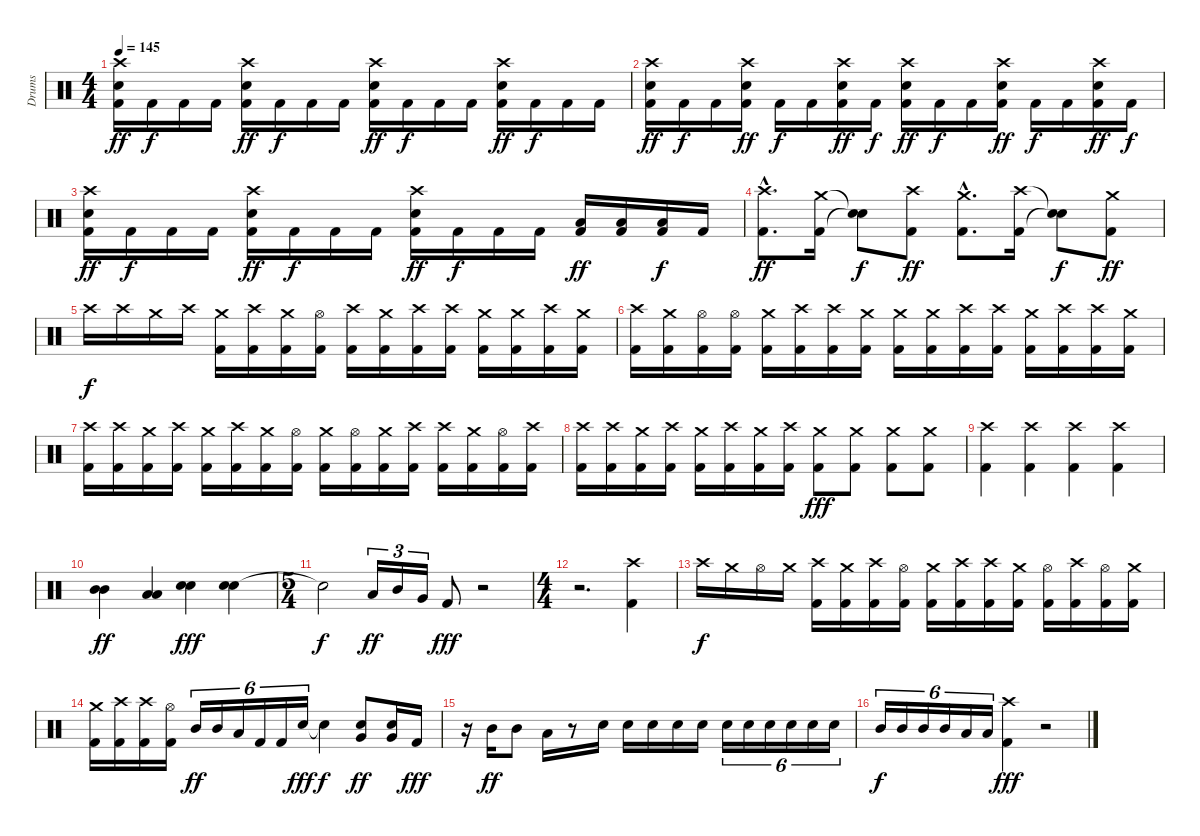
\track ("Drums" "Drums") {instrument percussion}
\staff {score}
\articulation defaults
\ts (4 4)
\tempo 145
\clef neutral
\ks c
("Crash high (hit)" "Snare (hit) 2" "Kick (hit) 2").16{dy ff} "Kick (hit) 2".16{dy f} "Kick (hit) 2".16 "Kick (hit) 2".16 ("Crash high (hit)" "Snare (hit) 2" "Kick (hit) 2").16{dy ff} "Kick (hit) 2".16{dy f} "Kick (hit) 2".16 "Kick (hit) 2".16 ("Snare (hit) 2" "Crash high (hit)" "Kick (hit) 2").16{dy ff} "Kick (hit) 2".16{dy f} "Kick (hit) 2".16 "Kick (hit) 2".16 ("Crash high (hit)" "Snare (hit) 2" "Kick (hit) 2").16{dy ff} "Kick (hit) 2".16{dy f} "Kick (hit) 2".16 "Kick (hit) 2".16 |
("Crash high (hit)" "Snare (hit) 2" "Kick (hit) 2").16{dy ff} "Kick (hit) 2".16{dy f} "Kick (hit) 2".16 ("Crash high (hit)" "Snare (hit) 2" "Kick (hit) 2").16{dy ff} "Kick (hit) 2".16{dy f} "Kick (hit) 2".16 ("Snare (hit) 2" "Crash high (hit)" "Kick (hit) 2").16{dy ff} "Kick (hit) 2".16{dy f} ("Crash high (hit)" "Snare (hit) 2" "Kick (hit) 2").16{dy ff} "Kick (hit) 2".16{dy f} "Kick (hit) 2".16 ("Snare (hit) 2" "Crash high (hit)" "Kick (hit) 2").16{dy ff} "Kick (hit) 2".16{dy f} "Kick (hit) 2".16 ("Snare (hit) 2" "Crash high (hit)" "Kick (hit) 2").16{dy ff} "Kick (hit) 2".16{dy f} |
("Crash high (hit)" "Snare (hit) 2" "Kick (hit) 2").16{dy ff} "Kick (hit) 2".16{dy f} "Kick (hit) 2".16 "Kick (hit) 2".16 ("Snare (hit) 2" "Crash high (hit)" "Kick (hit) 2").16{dy ff} "Kick (hit) 2".16{dy f} "Kick (hit) 2".16 "Kick (hit) 2".16 ("Crash high (hit)" "Snare (hit) 2" "Kick (hit) 2").16{dy ff} "Kick (hit) 2".16{dy f} "Kick (hit) 2".16 "Kick (hit) 2".16 ("Low Tom (hit)" "Kick (hit) 2").16{dy ff} ("Low Tom (hit)" "Kick (hit) 2").16 ("Low Tom (hit)" "Kick (hit) 2").16{dy f} "Kick (hit) 2".16 |
("Crash high (hit)"{hac} "Kick (hit) 2"{hac}).8{d dy ff} ("Crash medium (hit)" "Kick (hit) 2").16 ("Snare (hit)"{t} "Snare (hit)"{t}).8{dy f} ("Crash high (hit)" "Kick (hit) 2").8{dy ff} ("Crash medium (hit)"{hac} "Kick (hit) 2"{hac}).8{d} ("Crash high (hit)" "Kick (hit) 2").16 ("Snare (hit)"{t} "Snare (hit)"{t}).8{dy f} ("Crash medium (hit)" "Kick (hit) 2").8{dy ff} |
"Crash high (hit)".16{dy f} "Crash high (hit)".16 "Crash medium (hit)".16 "Crash high (hit)".16 ("Crash medium (hit)" "Kick (hit) 2").16 ("Crash high (hit)" "Kick (hit) 2").16 ("Crash medium (hit)" "Kick (hit) 2").16 ("Hi-Hat (open)" "Kick (hit) 2").16 ("Crash high (hit)" "Kick (hit) 2").16 ("Crash medium (hit)" "Kick (hit) 2").16 ("Crash high (hit)" "Kick (hit) 2").16 ("Crash high (hit)" "Kick (hit) 2").16 ("Crash medium (hit)" "Kick (hit) 2").16 ("Crash medium (hit)" "Kick (hit) 2").16 ("Crash high (hit)" "Kick (hit) 2").16 ("Crash medium (hit)" "Kick (hit) 2").16 |
("Crash high (hit)" "Kick (hit) 2").16 ("Crash medium (hit)" "Kick (hit) 2").16 ("Hi-Hat (open)" "Kick (hit) 2").16 ("Hi-Hat (open)" "Kick (hit) 2").16 ("Crash medium (hit)" "Kick (hit) 2").16 ("Crash high (hit)" "Kick (hit) 2").16 ("Crash high (hit)" "Kick (hit) 2").16 ("Crash medium (hit)" "Kick (hit) 2").16 ("Crash medium (hit)" "Kick (hit) 2").16 ("Crash medium (hit)" "Kick (hit) 2").16 ("Crash high (hit)" "Kick (hit) 2").16 ("Crash high (hit)" "Kick (hit) 2").16 ("Crash medium (hit)" "Kick (hit) 2").16 ("Crash high (hit)" "Kick (hit) 2").16 ("Crash high (hit)" "Kick (hit) 2").16 ("Crash medium (hit)" "Kick (hit) 2").16 |
("Crash high (hit)" "Kick (hit) 2").16 ("Crash high (hit)" "Kick (hit) 2").16 ("Crash medium (hit)" "Kick (hit) 2").16 ("Crash high (hit)" "Kick (hit) 2").16 ("Crash medium (hit)" "Kick (hit) 2").16 ("Crash high (hit)" "Kick (hit) 2").16 ("Crash medium (hit)" "Kick (hit) 2").16 ("Hi-Hat (open)" "Kick (hit) 2").16 ("Crash medium (hit)" "Kick (hit) 2").16 ("Hi-Hat (open)" "Kick (hit) 2").16 ("Crash medium (hit)" "Kick (hit) 2").16 ("Crash high (hit)" "Kick (hit) 2").16 ("Crash high (hit)" "Kick (hit) 2").16 ("Crash medium (hit)" "Kick (hit) 2").16 ("Hi-Hat (open)" "Kick (hit) 2").16 ("Crash high (hit)" "Kick (hit) 2").16 |
("Crash high (hit)" "Kick (hit) 2").16 ("Crash high (hit)" "Kick (hit) 2").16 ("Crash medium (hit)" "Kick (hit) 2").16 ("Crash high (hit)" "Kick (hit) 2").16 ("Crash medium (hit)" "Kick (hit) 2").16 ("Crash high (hit)" "Kick (hit) 2").16 ("Crash medium (hit)" "Kick (hit) 2").16 ("Crash high (hit)" "Kick (hit) 2").16 ("Crash medium (hit)" "Kick (hit) 2").8{dy fff} ("Crash medium (hit)" "Kick (hit) 2").8 ("Crash medium (hit)" "Kick (hit) 2").8 ("Crash medium (hit)" "Kick (hit) 2").8 |
("Crash high (hit)" "Kick (hit) 2").4 ("Crash high (hit)" "Kick (hit) 2").4 ("Crash high (hit)" "Kick (hit) 2").4 ("Crash high (hit)" "Kick (hit) 2").4 |
("Mid Tom (hit)" "Mid Tom (hit)").4{dy ff} ("Low Tom (hit)" "Low Tom (hit)").4 ("Snare (hit) 2" "Snare (hit) 2").4{dy fff} ("Snare (hit) 2" "Snare (hit) 2").4 |
\ts (5 4)
"Snare (hit)"{t}.2{dy f} "Low Tom (hit)".16{tu (3 2) dy ff} "Mid Tom (hit)".16{tu (3 2)} "Very Low Tom (hit)".16{tu (3 2)} "Kick (hit) 2".8{dy fff} r.2 |
\ts (4 4)
r.2{d} ("Crash high (hit)" "Kick (hit) 2").4 |
"Crash high (hit)".16{dy f} "Crash medium (hit)".16 "Hi-Hat (open)".16 "Crash medium (hit)".16 ("Kick (hit) 2" "Crash high (hit)").16 ("Kick (hit) 2" "Crash medium (hit)").16 ("Kick (hit) 2" "Crash high (hit)").16 ("Kick (hit) 2" "Hi-Hat (open)").16 ("Kick (hit) 2" "Crash medium (hit)").16 ("Kick (hit) 2" "Crash high (hit)").16 ("Kick (hit) 2" "Crash high (hit)").16 ("Kick (hit) 2" "Crash medium (hit)").16 ("Kick (hit) 2" "Hi-Hat (open)").16 ("Kick (hit) 2" "Crash high (hit)").16 ("Kick (hit) 2" "Hi-Hat (open)").16 ("Kick (hit) 2" "Crash medium (hit)").16 |
("Kick (hit) 2" "Crash medium (hit)").16 ("Kick (hit) 2" "Crash high (hit)").16 ("Kick (hit) 2" "Crash high (hit)").16 ("Kick (hit) 2" "Hi-Hat (open)").16 "Mid Tom (hit)".16{tu (6 4) dy ff} "Mid Tom (hit)".16{tu (6 4)} "Low Tom (hit)".16{tu (6 4)} "Kick (hit) 2".16{tu (6 4)} "Kick (hit) 2".16{tu (6 4)} "Snare (hit) 2".16{tu (6 4) dy fff} "Snare (hit)"{t}.4{dy f} ("Snare (hit) 2" "Very Low Tom (hit)").8{dy ff} ("Snare (hit) 2" "Very Low Tom (hit)").16 "Kick (hit) 2".16{dy fff} |
r.16 "Mid Tom (hit)".16{dy ff} "Mid Tom (hit)".8 "Low Tom (hit)".16 r.8 "Snare (hit) 2".16 "Snare (hit) 2".16 "Snare (hit) 2".16 "Snare (hit) 2".16 "Snare (hit) 2".16 "Snare (hit) 2".16{tu (6 4)} "Snare (hit) 2".16{tu (6 4)} "Snare (hit) 2".16{tu (6 4)} "Snare (hit) 2".16{tu (6 4)} "Snare (hit) 2".16{tu (6 4)} "Snare (hit) 2".16{tu (6 4)} |
"Mid Tom (hit)".16{tu (6 4) dy f} "Mid Tom (hit)".16{tu (6 4)} "Mid Tom (hit)".16{tu (6 4)} "Mid Tom (hit)".16{tu (6 4)} "Low Tom (hit)".16{tu (6 4)} "Low Tom (hit)".16{tu (6 4)} ("Crash high (hit)" "Kick (hit) 2").4{dy fff} r.2
